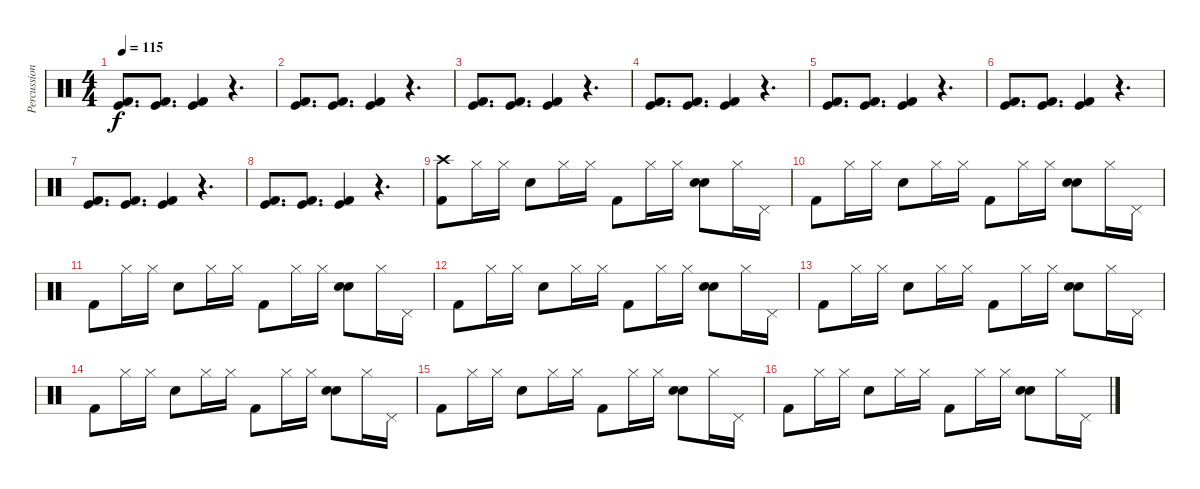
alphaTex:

\track ("Percussions" "Percussion") {instrument percussion}
\staff {score}
\articulation defaults
\ts (4 4)
\tempo 115
\clef neutral
\ks c
("Kick (hit) 2" "Kick (hit)").8{d dy f} ("Kick (hit) 2" "Kick (hit)").8{d} ("Kick (hit) 2" "Kick (hit)").4 r.4{d} |
("Kick (hit) 2" "Kick (hit)").8{d} ("Kick (hit) 2" "Kick (hit)").8{d} ("Kick (hit) 2" "Kick (hit)").4 r.4{d} |
("Kick (hit) 2" "Kick (hit)").8{d} ("Kick (hit) 2" "Kick (hit)").8{d} ("Kick (hit) 2" "Kick (hit)").4 r.4{d} |
("Kick (hit) 2" "Kick (hit)").8{d} ("Kick (hit) 2" "Kick (hit)").8{d} ("Kick (hit) 2" "Kick (hit)").4 r.4{d} |
("Kick (hit) 2" "Kick (hit)").8{d} ("Kick (hit) 2" "Kick (hit)").8{d} ("Kick (hit) 2" "Kick (hit)").4 r.4{d} |
("Kick (hit) 2" "Kick (hit)").8{d} ("Kick (hit) 2" "Kick (hit)").8{d} ("Kick (hit) 2" "Kick (hit)").4 r.4{d} |
("Kick (hit) 2" "Kick (hit)").8{d} ("Kick (hit) 2" "Kick (hit)").8{d} ("Kick (hit) 2" "Kick (hit)").4 r.4{d} |
("Kick (hit) 2" "Kick (hit)").8{d} ("Kick (hit) 2" "Kick (hit)").8{d} ("Kick (hit) 2" "Kick (hit)").4 r.4{d} |
("Kick (hit) 2" "Crash high (hit)").8 "Hi-Hat (closed)".16 "Hi-Hat (closed)".16 "Electric Snare (hit)".8 "Hi-Hat (closed)".16 "Hi-Hat (closed)".16 "Kick (hit) 2".8 "Hi-Hat (closed)".16 "Hi-Hat (closed)".16 ("Hand Clap (hit)" "Electric Snare (hit)").8 "Hi-Hat (closed)".16 "Pedal Hi-Hat (hit)".16 |
"Kick (hit) 2".8 "Hi-Hat (closed)".16 "Hi-Hat (closed)".16 "Electric Snare (hit)".8 "Hi-Hat (closed)".16 "Hi-Hat (closed)".16 "Kick (hit) 2".8 "Hi-Hat (closed)".16 "Hi-Hat (closed)".16 ("Hand Clap (hit)" "Electric Snare (hit)").8 "Hi-Hat (closed)".16 "Pedal Hi-Hat (hit)".16 |
"Kick (hit) 2".8 "Hi-Hat (closed)".16 "Hi-Hat (closed)".16 "Electric Snare (hit)".8 "Hi-Hat (closed)".16 "Hi-Hat (closed)".16 "Kick (hit) 2".8 "Hi-Hat (closed)".16 "Hi-Hat (closed)".16 ("Hand Clap (hit)" "Electric Snare (hit)").8 "Hi-Hat (closed)".16 "Pedal Hi-Hat (hit)".16 |
"Kick (hit) 2".8 "Hi-Hat (closed)".16 "Hi-Hat (closed)".16 "Electric Snare (hit)".8 "Hi-Hat (closed)".16 "Hi-Hat (closed)".16 "Kick (hit) 2".8 "Hi-Hat (closed)".16 "Hi-Hat (closed)".16 ("Hand Clap (hit)" "Electric Snare (hit)").8 "Hi-Hat (closed)".16 "Pedal Hi-Hat (hit)".16 |
"Kick (hit) 2".8 "Hi-Hat (closed)".16 "Hi-Hat (closed)".16 "Electric Snare (hit)".8 "Hi-Hat (closed)".16 "Hi-Hat (closed)".16 "Kick (hit) 2".8 "Hi-Hat (closed)".16 "Hi-Hat (closed)".16 ("Hand Clap (hit)" "Electric Snare (hit)").8 "Hi-Hat (closed)".16 "Pedal Hi-Hat (hit)".16 |
"Kick (hit) 2".8 "Hi-Hat (closed)".16 "Hi-Hat (closed)".16 "Electric Snare (hit)".8 "Hi-Hat (closed)".16 "Hi-Hat (closed)".16 "Kick (hit) 2".8 "Hi-Hat (closed)".16 "Hi-Hat (closed)".16 ("Hand Clap (hit)" "Electric Snare (hit)").8 "Hi-Hat (closed)".16 "Pedal Hi-Hat (hit)".16 |
"Kick (hit) 2".8 "Hi-Hat (closed)".16 "Hi-Hat (closed)".16 "Electric Snare (hit)".8 "Hi-Hat (closed)".16 "Hi-Hat (closed)".16 "Kick (hit) 2".8 "Hi-Hat (closed)".16 "Hi-Hat (closed)".16 ("Hand Clap (hit)" "Electric Snare (hit)").8 "Hi-Hat (closed)".16 "Pedal Hi-Hat (hit)".16 |
"Kick (hit) 2".8 "Hi-Hat (closed)".16 "Hi-Hat (closed)".16 "Electric Snare (hit)".8 "Hi-Hat (closed)".16 "Hi-Hat (closed)".16 "Kick (hit) 2".8 "Hi-Hat (closed)".16 "Hi-Hat (closed)".16 ("Hand Clap (hit)" "Electric Snare (hit)").8 "Hi-Hat (closed)".16 "Pedal Hi-Hat (hit)".16
